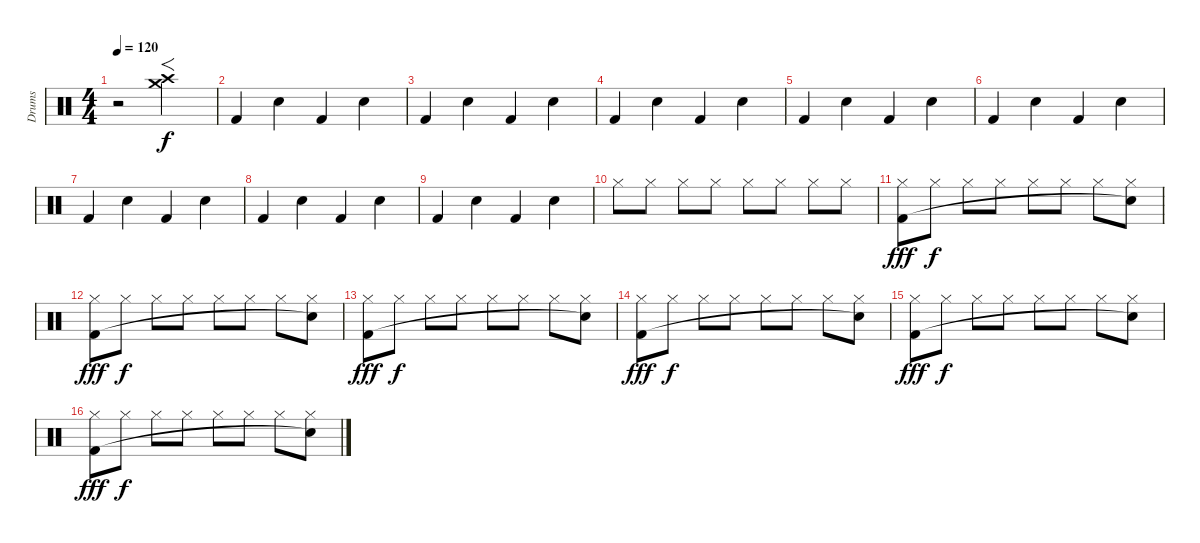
\track ("Drums" "Drums") {instrument percussion}
\staff {score}
\articulation defaults
\ts (4 4)
\tempo 120
\clef neutral
\ks c
r.2{dy f} ("Crash medium (hit)" "Crash high (hit)").2{f} |
"Kick (hit) 2".4 "Snare (hit) 2".4 "Kick (hit) 2".4 "Snare (hit) 2".4 |
"Kick (hit) 2".4 "Snare (hit) 2".4 "Kick (hit) 2".4 "Snare (hit) 2".4 |
"Kick (hit) 2".4 "Snare (hit) 2".4 "Kick (hit) 2".4 "Snare (hit) 2".4 |
"Kick (hit) 2".4 "Snare (hit) 2".4 "Kick (hit) 2".4 "Snare (hit) 2".4 |
"Kick (hit) 2".4 "Snare (hit) 2".4 "Kick (hit) 2".4 "Snare (hit) 2".4 |
"Kick (hit) 2".4 "Snare (hit) 2".4 "Kick (hit) 2".4 "Snare (hit) 2".4 |
"Kick (hit) 2".4 "Snare (hit) 2".4 "Kick (hit) 2".4 "Snare (hit) 2".4 |
"Kick (hit) 2".4 "Snare (hit) 2".4 "Kick (hit) 2".4 "Snare (hit) 2".4 |
"Hi-Hat (closed)".8 "Hi-Hat (closed)".8 "Hi-Hat (closed)".8 "Hi-Hat (closed)".8 "Hi-Hat (closed)".8 "Hi-Hat (closed)".8 "Hi-Hat (closed)".8 "Hi-Hat (closed)".8 |
("Hi-Hat (closed)" "Kick (hit) 2").8{dy fff} "Hi-Hat (closed)".8{dy f} "Hi-Hat (closed)".8 "Hi-Hat (closed)".8 "Hi-Hat (closed)".8 "Hi-Hat (closed)".8 "Hi-Hat (closed)".8 ("Hi-Hat (closed)" "Snare (hit)"{t}).8 |
("Hi-Hat (closed)" "Kick (hit) 2").8{dy fff} "Hi-Hat (closed)".8{dy f} "Hi-Hat (closed)".8 "Hi-Hat (closed)".8 "Hi-Hat (closed)".8 "Hi-Hat (closed)".8 "Hi-Hat (closed)".8 ("Hi-Hat (closed)" "Snare (hit)"{t}).8 |
("Hi-Hat (closed)" "Kick (hit) 2").8{dy fff} "Hi-Hat (closed)".8{dy f} "Hi-Hat (closed)".8 "Hi-Hat (closed)".8 "Hi-Hat (closed)".8 "Hi-Hat (closed)".8 "Hi-Hat (closed)".8 ("Hi-Hat (closed)" "Snare (hit)"{t}).8 |
("Hi-Hat (closed)" "Kick (hit) 2").8{dy fff} "Hi-Hat (closed)".8{dy f} "Hi-Hat (closed)".8 "Hi-Hat (closed)".8 "Hi-Hat (closed)".8 "Hi-Hat (closed)".8 "Hi-Hat (closed)".8 ("Hi-Hat (closed)" "Snare (hit)"{t}).8 |
("Hi-Hat (closed)" "Kick (hit) 2").8{dy fff} "Hi-Hat (closed)".8{dy f} "Hi-Hat (closed)".8 "Hi-Hat (closed)".8 "Hi-Hat (closed)".8 "Hi-Hat (closed)".8 "Hi-Hat (closed)".8 ("Hi-Hat (closed)" "Snare (hit)"{t}).8 |
("Hi-Hat (closed)" "Kick (hit) 2").8{dy fff} "Hi-Hat (closed)".8{dy f} "Hi-Hat (closed)".8 "Hi-Hat (closed)".8 "Hi-Hat (closed)".8 "Hi-Hat (closed)".8 "Hi-Hat (closed)".8 ("Hi-Hat (closed)" "Snare (hit)"{t}).8
